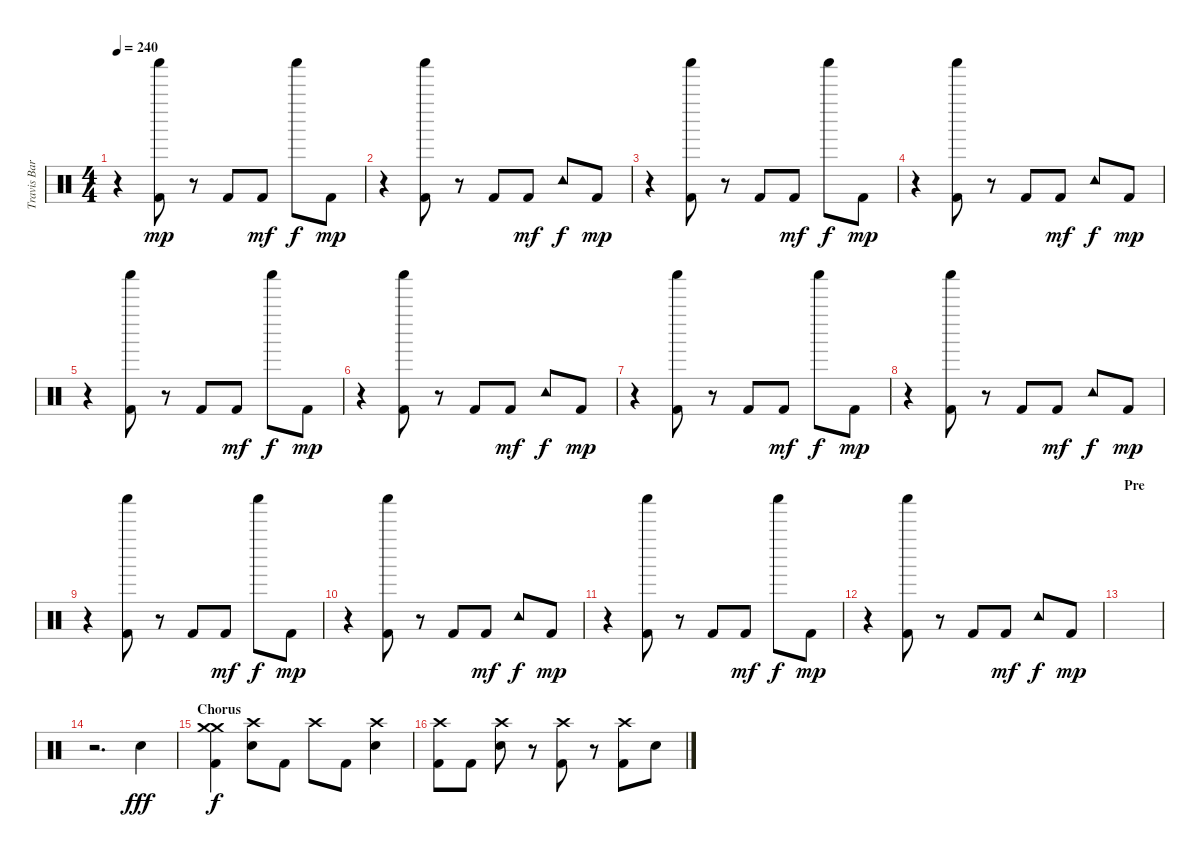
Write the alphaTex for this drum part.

\track ("Travis Barker - Drums" "Travis Bar") {instrument percussion}
\staff {score}
\articulation defaults
\ts (4 4)
\tempo 240
\clef neutral
\ks c
r.4{dy mp} ("Shaker (hit)" "Kick (hit) 2").8 r.8 "Kick (hit) 2".8 "Kick (hit) 2".8{dy mf} "Shaker (hit)".8{dy f} "Kick (hit) 2".8{dy mp} |
r.4 ("Shaker (hit)" "Kick (hit) 2").8 r.8 "Kick (hit) 2".8 "Kick (hit) 2".8{dy mf} "Tambourine (hit)".8{dy f} "Kick (hit) 2".8{dy mp} |
r.4 ("Shaker (hit)" "Kick (hit) 2").8 r.8 "Kick (hit) 2".8 "Kick (hit) 2".8{dy mf} "Shaker (hit)".8{dy f} "Kick (hit) 2".8{dy mp} |
r.4 ("Shaker (hit)" "Kick (hit) 2").8 r.8 "Kick (hit) 2".8 "Kick (hit) 2".8{dy mf} "Tambourine (hit)".8{dy f} "Kick (hit) 2".8{dy mp} |
r.4 ("Shaker (hit)" "Kick (hit) 2").8 r.8 "Kick (hit) 2".8 "Kick (hit) 2".8{dy mf} "Shaker (hit)".8{dy f} "Kick (hit) 2".8{dy mp} |
r.4 ("Shaker (hit)" "Kick (hit) 2").8 r.8 "Kick (hit) 2".8 "Kick (hit) 2".8{dy mf} "Tambourine (hit)".8{dy f} "Kick (hit) 2".8{dy mp} |
r.4 ("Shaker (hit)" "Kick (hit) 2").8 r.8 "Kick (hit) 2".8 "Kick (hit) 2".8{dy mf} "Shaker (hit)".8{dy f} "Kick (hit) 2".8{dy mp} |
r.4 ("Shaker (hit)" "Kick (hit) 2").8 r.8 "Kick (hit) 2".8 "Kick (hit) 2".8{dy mf} "Tambourine (hit)".8{dy f} "Kick (hit) 2".8{dy mp} |
r.4 ("Shaker (hit)" "Kick (hit) 2").8 r.8 "Kick (hit) 2".8 "Kick (hit) 2".8{dy mf} "Shaker (hit)".8{dy f} "Kick (hit) 2".8{dy mp} |
r.4 ("Shaker (hit)" "Kick (hit) 2").8 r.8 "Kick (hit) 2".8 "Kick (hit) 2".8{dy mf} "Tambourine (hit)".8{dy f} "Kick (hit) 2".8{dy mp} |
r.4 ("Shaker (hit)" "Kick (hit) 2").8 r.8 "Kick (hit) 2".8 "Kick (hit) 2".8{dy mf} "Shaker (hit)".8{dy f} "Kick (hit) 2".8{dy mp} |
r.4 ("Shaker (hit)" "Kick (hit) 2").8 r.8 "Kick (hit) 2".8 "Kick (hit) 2".8{dy mf} "Tambourine (hit)".8{dy f} "Kick (hit) 2".8{dy mp} |
\section ("" "Pre")
|
r.2{d} "Electric Snare (hit)".4{dy fff} |
\section ("" "Chorus")
("Crash medium (hit)" "Crash medium (hit)" "Kick (hit) 2").4{dy f} ("Crash high (hit)" "Electric Snare (hit)").8 "Kick (hit) 2".8 "Crash high (hit)".8 "Kick (hit) 2".8 ("Crash high (hit)" "Electric Snare (hit)").4 |
("Crash high (hit)" "Kick (hit) 2").8 "Kick (hit) 2".8 ("Crash high (hit)" "Electric Snare (hit)").8 r.8 ("Crash high (hit)" "Kick (hit) 2").8 r.8 ("Crash high (hit)" "Kick (hit) 2").8 "Electric Snare (hit)".8
